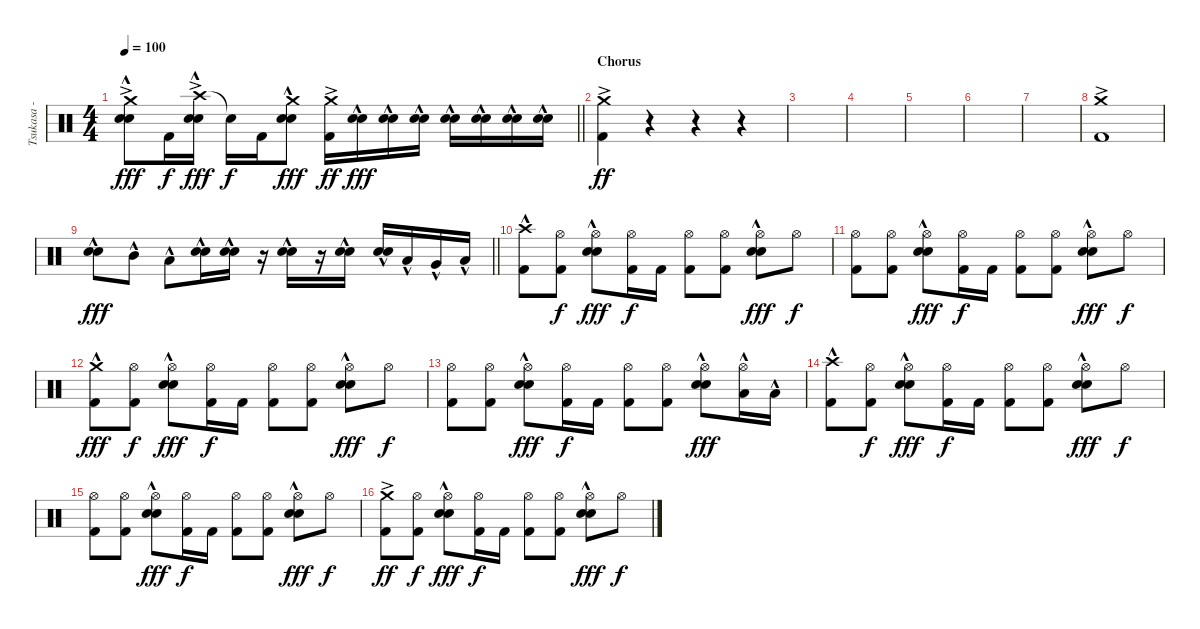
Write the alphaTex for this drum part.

\track ("Tsukasa - Drums" "Tsukasa - ") {instrument percussion}
\staff {score}
\articulation defaults
\ts (4 4)
\tempo 100
\clef neutral
\barLineRight lightlight
\ks c
("Crash medium (hit)"{ac} "Electric Snare (hit)"{hac} "Snare (hit) 2"{hac}).8{dy fff} "Kick (hit) 2".16{dy f} ("Crash high (hit)"{ac} "Electric Snare (hit)"{hac} "Snare (hit) 2"{hac}).16{dy fff} "Snare (hit)"{t}.16{dy f} "Kick (hit) 2".16 ("Crash medium (hit)" "Electric Snare (hit)"{hac} "Snare (hit) 2"{hac}).8{dy fff} ("Crash medium (hit)"{ac} "Kick (hit) 2").16{dy ff} ("Electric Snare (hit)"{hac} "Snare (hit) 2"{hac}).16{dy fff} ("Electric Snare (hit)"{hac} "Snare (hit) 2"{hac}).16 ("Electric Snare (hit)"{hac} "Snare (hit) 2"{hac}).16 ("Electric Snare (hit)"{hac} "Snare (hit) 2"{hac}).16 ("Electric Snare (hit)"{hac} "Snare (hit) 2"{hac}).16 ("Electric Snare (hit)"{hac} "Snare (hit) 2"{hac}).16 ("Electric Snare (hit)"{hac} "Snare (hit) 2"{hac}).16 |
\section ("" "Chorus")
("Crash medium (hit)"{ac} "Kick (hit) 2").4{dy ff} r.4 r.4 r.4 |
|
|
|
|
|
("Crash medium (hit)"{ac} "Kick (hit) 2").1 |
\barLineRight lightlight
("Electric Snare (hit)"{hac} "Snare (hit) 2"{hac}).8{dy fff} "Mid Tom (hit)"{hac}.8 "Low Tom (hit)"{hac}.8 ("Electric Snare (hit)"{hac} "Snare (hit) 2"{hac}).16 ("Electric Snare (hit)"{hac} "Snare (hit) 2"{hac}).16 r.16 ("Electric Snare (hit)"{hac} "Snare (hit) 2"{hac}).16 r.16 ("Electric Snare (hit)"{hac} "Snare (hit) 2"{hac}).16 ("Electric Snare (hit)"{hac} "Snare (hit) 2"{hac}).16 "Low Tom (hit)"{hac}.16 "Very Low Tom (hit)"{hac}.16 "Low Floor Tom (hit)"{hac}.16 |
\section ("" "")
("Crash high (hit)"{hac} "Kick (hit) 2").8 ("Hi-Hat (open)" "Kick (hit) 2").8{dy f} ("Hi-Hat (open)" "Electric Snare (hit)"{hac} "Snare (hit) 2"{hac}).8{dy fff} ("Hi-Hat (open)" "Kick (hit) 2").16{dy f} "Kick (hit) 2".16 ("Hi-Hat (open)" "Kick (hit) 2").8 ("Hi-Hat (open)" "Kick (hit) 2").8 ("Hi-Hat (open)" "Electric Snare (hit)"{hac} "Snare (hit) 2"{hac}).8{dy fff} "Hi-Hat (open)".8{dy f} |
("Hi-Hat (open)" "Kick (hit) 2").8 ("Hi-Hat (open)" "Kick (hit) 2").8 ("Hi-Hat (open)" "Electric Snare (hit)"{hac} "Snare (hit) 2"{hac}).8{dy fff} ("Hi-Hat (open)" "Kick (hit) 2").16{dy f} "Kick (hit) 2".16 ("Hi-Hat (open)" "Kick (hit) 2").8 ("Hi-Hat (open)" "Kick (hit) 2").8 ("Hi-Hat (open)" "Electric Snare (hit)"{hac} "Snare (hit) 2"{hac}).8{dy fff} "Hi-Hat (open)".8{dy f} |
("Crash medium (hit)"{hac} "Kick (hit) 2").8{dy fff} ("Hi-Hat (open)" "Kick (hit) 2").8{dy f} ("Hi-Hat (open)" "Electric Snare (hit)"{hac} "Snare (hit) 2"{hac}).8{dy fff} ("Hi-Hat (open)" "Kick (hit) 2").16{dy f} "Kick (hit) 2".16 ("Hi-Hat (open)" "Kick (hit) 2").8 ("Hi-Hat (open)" "Kick (hit) 2").8 ("Hi-Hat (open)" "Electric Snare (hit)"{hac} "Snare (hit) 2"{hac}).8{dy fff} "Hi-Hat (open)".8{dy f} |
("Hi-Hat (open)" "Kick (hit) 2").8 ("Hi-Hat (open)" "Kick (hit) 2").8 ("Hi-Hat (open)" "Electric Snare (hit)"{hac} "Snare (hit) 2"{hac}).8{dy fff} ("Hi-Hat (open)" "Kick (hit) 2").16{dy f} "Kick (hit) 2".16 ("Hi-Hat (open)" "Kick (hit) 2").8 ("Hi-Hat (open)" "Kick (hit) 2").8 ("Hi-Hat (open)" "Electric Snare (hit)"{hac} "Snare (hit) 2"{hac}).8{dy fff} ("Hi-Hat (open)" "Low Tom (hit)"{hac}).16 "Low Tom (hit)"{hac}.16 |
("Crash high (hit)"{hac} "Kick (hit) 2").8 ("Hi-Hat (open)" "Kick (hit) 2").8{dy f} ("Hi-Hat (open)" "Electric Snare (hit)"{hac} "Snare (hit) 2"{hac}).8{dy fff} ("Hi-Hat (open)" "Kick (hit) 2").16{dy f} "Kick (hit) 2".16 ("Hi-Hat (open)" "Kick (hit) 2").8 ("Hi-Hat (open)" "Kick (hit) 2").8 ("Hi-Hat (open)" "Electric Snare (hit)"{hac} "Snare (hit) 2"{hac}).8{dy fff} "Hi-Hat (open)".8{dy f} |
("Hi-Hat (open)" "Kick (hit) 2").8 ("Hi-Hat (open)" "Kick (hit) 2").8 ("Hi-Hat (open)" "Electric Snare (hit)"{hac} "Snare (hit) 2"{hac}).8{dy fff} ("Hi-Hat (open)" "Kick (hit) 2").16{dy f} "Kick (hit) 2".16 ("Hi-Hat (open)" "Kick (hit) 2").8 ("Hi-Hat (open)" "Kick (hit) 2").8 ("Hi-Hat (open)" "Electric Snare (hit)"{hac} "Snare (hit) 2"{hac}).8{dy fff} "Hi-Hat (open)".8{dy f} |
("Crash medium (hit)"{ac} "Kick (hit) 2").8{dy ff} ("Hi-Hat (open)" "Kick (hit) 2").8{dy f} ("Hi-Hat (open)" "Electric Snare (hit)"{hac} "Snare (hit) 2"{hac}).8{dy fff} ("Hi-Hat (open)" "Kick (hit) 2").16{dy f} "Kick (hit) 2".16 ("Hi-Hat (open)" "Kick (hit) 2").8 ("Hi-Hat (open)" "Kick (hit) 2").8 ("Hi-Hat (open)" "Electric Snare (hit)"{hac} "Snare (hit) 2"{hac}).8{dy fff} "Hi-Hat (open)".8{dy f}
